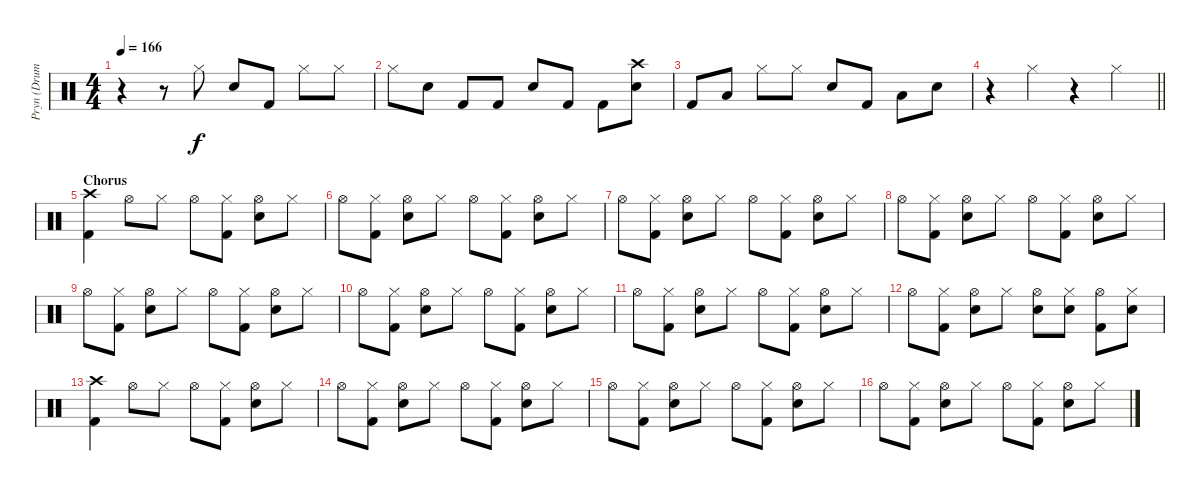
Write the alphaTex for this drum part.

\track ("Pryn (Drums)" "Pryn (Drum") {instrument percussion}
\staff {score}
\articulation defaults
\ts (4 4)
\tempo 166
\clef neutral
\ks c
r.4{dy f} r.8 "Hi-Hat (closed)".8 "Snare (hit) 2".8 "Kick (hit) 2".8 "Hi-Hat (closed)".8 "Hi-Hat (closed)".8 |
"Hi-Hat (closed)".8 "Snare (hit) 2".8 "Kick (hit) 2".8 "Kick (hit) 2".8 "Snare (hit) 2".8 "Kick (hit) 2".8 "Kick (hit) 2".8 ("Snare (hit) 2" "Crash high (hit)").8 |
"Kick (hit) 2".8 "Low Floor Tom (hit)".8 "Hi-Hat (closed)".8 "Hi-Hat (closed)".8 "Snare (hit) 2".8 "Kick (hit) 2".8 "Low Floor Tom (hit)".8 "Snare (hit) 2".8 |
\barLineRight lightlight
r.4 "Hi-Hat (closed)".4 r.4 "Hi-Hat (closed)".4 |
\section ("" "Chorus")
("Crash high (hit)" "Kick (hit) 2").4 "Hi-Hat (open)".8 "Hi-Hat (closed)".8 "Hi-Hat (open)".8 ("Hi-Hat (closed)" "Kick (hit) 2").8 ("Hi-Hat (open)" "Snare (hit) 2").8 "Hi-Hat (closed)".8 |
"Hi-Hat (open)".8 ("Hi-Hat (closed)" "Kick (hit) 2").8 ("Hi-Hat (open)" "Snare (hit) 2").8 "Hi-Hat (closed)".8 "Hi-Hat (open)".8 ("Hi-Hat (closed)" "Kick (hit) 2").8 ("Hi-Hat (open)" "Snare (hit) 2").8 "Hi-Hat (closed)".8 |
"Hi-Hat (open)".8 ("Hi-Hat (closed)" "Kick (hit) 2").8 ("Hi-Hat (open)" "Snare (hit) 2").8 "Hi-Hat (closed)".8 "Hi-Hat (open)".8 ("Hi-Hat (closed)" "Kick (hit) 2").8 ("Hi-Hat (open)" "Snare (hit) 2").8 "Hi-Hat (closed)".8 |
"Hi-Hat (open)".8 ("Hi-Hat (closed)" "Kick (hit) 2").8 ("Hi-Hat (open)" "Snare (hit) 2").8 "Hi-Hat (closed)".8 "Hi-Hat (open)".8 ("Hi-Hat (closed)" "Kick (hit) 2").8 ("Hi-Hat (open)" "Snare (hit) 2").8 "Hi-Hat (closed)".8 |
"Hi-Hat (open)".8 ("Hi-Hat (closed)" "Kick (hit) 2").8 ("Hi-Hat (open)" "Snare (hit) 2").8 "Hi-Hat (closed)".8 "Hi-Hat (open)".8 ("Hi-Hat (closed)" "Kick (hit) 2").8 ("Hi-Hat (open)" "Snare (hit) 2").8 "Hi-Hat (closed)".8 |
"Hi-Hat (open)".8 ("Hi-Hat (closed)" "Kick (hit) 2").8 ("Hi-Hat (open)" "Snare (hit) 2").8 "Hi-Hat (closed)".8 "Hi-Hat (open)".8 ("Hi-Hat (closed)" "Kick (hit) 2").8 ("Hi-Hat (open)" "Snare (hit) 2").8 "Hi-Hat (closed)".8 |
"Hi-Hat (open)".8 ("Hi-Hat (closed)" "Kick (hit) 2").8 ("Hi-Hat (open)" "Snare (hit) 2").8 "Hi-Hat (closed)".8 "Hi-Hat (open)".8 ("Hi-Hat (closed)" "Kick (hit) 2").8 ("Hi-Hat (open)" "Snare (hit) 2").8 "Hi-Hat (closed)".8 |
"Hi-Hat (open)".8 ("Hi-Hat (closed)" "Kick (hit) 2").8 ("Hi-Hat (open)" "Snare (hit) 2").8 "Hi-Hat (closed)".8 ("Hi-Hat (open)" "Snare (hit) 2").8 ("Hi-Hat (closed)" "Snare (hit) 2").8 ("Hi-Hat (open)" "Kick (hit) 2").8 ("Hi-Hat (closed)" "Snare (hit) 2").8 |
("Crash high (hit)" "Kick (hit) 2").4 "Hi-Hat (open)".8 "Hi-Hat (closed)".8 "Hi-Hat (open)".8 ("Hi-Hat (closed)" "Kick (hit) 2").8 ("Hi-Hat (open)" "Snare (hit) 2").8 "Hi-Hat (closed)".8 |
"Hi-Hat (open)".8 ("Hi-Hat (closed)" "Kick (hit) 2").8 ("Hi-Hat (open)" "Snare (hit) 2").8 "Hi-Hat (closed)".8 "Hi-Hat (open)".8 ("Hi-Hat (closed)" "Kick (hit) 2").8 ("Hi-Hat (open)" "Snare (hit) 2").8 "Hi-Hat (closed)".8 |
"Hi-Hat (open)".8 ("Hi-Hat (closed)" "Kick (hit) 2").8 ("Hi-Hat (open)" "Snare (hit) 2").8 "Hi-Hat (closed)".8 "Hi-Hat (open)".8 ("Hi-Hat (closed)" "Kick (hit) 2").8 ("Hi-Hat (open)" "Snare (hit) 2").8 "Hi-Hat (closed)".8 |
"Hi-Hat (open)".8 ("Hi-Hat (closed)" "Kick (hit) 2").8 ("Hi-Hat (open)" "Snare (hit) 2").8 "Hi-Hat (closed)".8 "Hi-Hat (open)".8 ("Hi-Hat (closed)" "Kick (hit) 2").8 ("Hi-Hat (open)" "Snare (hit) 2").8 "Hi-Hat (closed)".8
